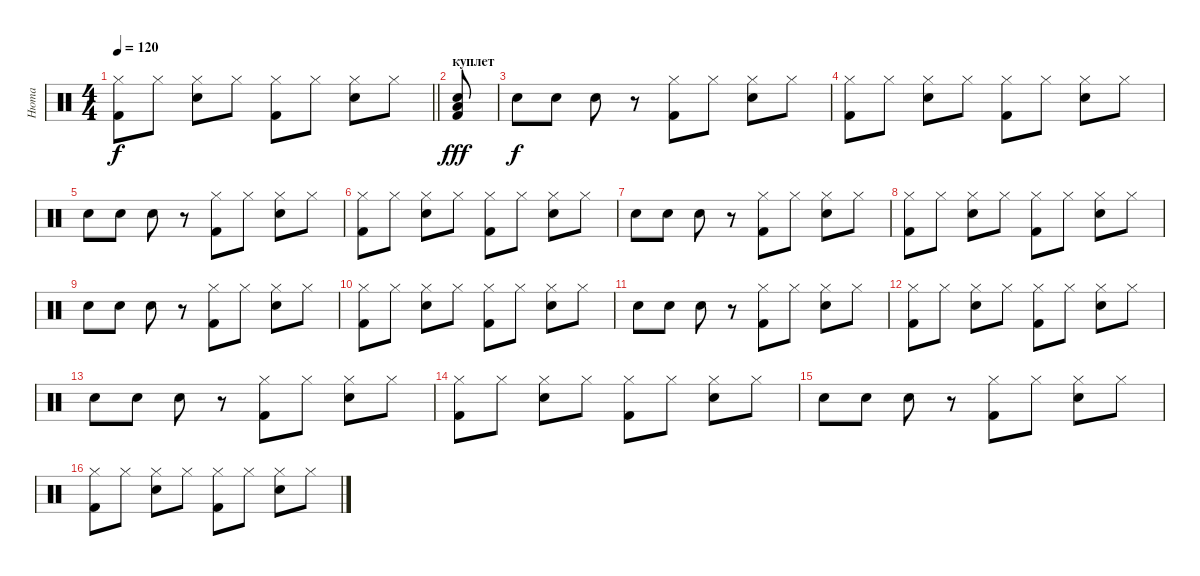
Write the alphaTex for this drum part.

\track ("Нюта" "Нюта") {instrument percussion}
\staff {score}
\articulation defaults
\ts (4 4)
\tempo 120
\clef neutral
\barLineRight lightlight
\ks c
("Hi-Hat (closed)" "Kick (hit) 2").8{dy f} "Hi-Hat (closed)".8 ("Hi-Hat (closed)" "Electric Snare (hit)").8 "Hi-Hat (closed)".8 ("Hi-Hat (closed)" "Kick (hit) 2").8 "Hi-Hat (closed)".8 ("Hi-Hat (closed)" "Electric Snare (hit)").8 "Hi-Hat (closed)".8 |
\section ("" "куплет")
("Kick (hit) 2" "Low Floor Tom (hit)" "Snare (hit) 2").8{dy fff} |
"Electric Snare (hit)".8{dy f} "Electric Snare (hit)".8 "Electric Snare (hit)".8 r.8 ("Hi-Hat (closed)" "Kick (hit) 2").8 "Hi-Hat (closed)".8 ("Hi-Hat (closed)" "Electric Snare (hit)").8 "Hi-Hat (closed)".8 |
("Hi-Hat (closed)" "Kick (hit) 2").8 "Hi-Hat (closed)".8 ("Hi-Hat (closed)" "Electric Snare (hit)").8 "Hi-Hat (closed)".8 ("Hi-Hat (closed)" "Kick (hit) 2").8 "Hi-Hat (closed)".8 ("Hi-Hat (closed)" "Electric Snare (hit)").8 "Hi-Hat (closed)".8 |
"Electric Snare (hit)".8 "Electric Snare (hit)".8 "Electric Snare (hit)".8 r.8 ("Hi-Hat (closed)" "Kick (hit) 2").8 "Hi-Hat (closed)".8 ("Hi-Hat (closed)" "Electric Snare (hit)").8 "Hi-Hat (closed)".8 |
("Hi-Hat (closed)" "Kick (hit) 2").8 "Hi-Hat (closed)".8 ("Hi-Hat (closed)" "Electric Snare (hit)").8 "Hi-Hat (closed)".8 ("Hi-Hat (closed)" "Kick (hit) 2").8 "Hi-Hat (closed)".8 ("Hi-Hat (closed)" "Electric Snare (hit)").8 "Hi-Hat (closed)".8 |
"Electric Snare (hit)".8 "Electric Snare (hit)".8 "Electric Snare (hit)".8 r.8 ("Hi-Hat (closed)" "Kick (hit) 2").8 "Hi-Hat (closed)".8 ("Hi-Hat (closed)" "Electric Snare (hit)").8 "Hi-Hat (closed)".8 |
("Hi-Hat (closed)" "Kick (hit) 2").8 "Hi-Hat (closed)".8 ("Hi-Hat (closed)" "Electric Snare (hit)").8 "Hi-Hat (closed)".8 ("Hi-Hat (closed)" "Kick (hit) 2").8 "Hi-Hat (closed)".8 ("Hi-Hat (closed)" "Electric Snare (hit)").8 "Hi-Hat (closed)".8 |
"Electric Snare (hit)".8 "Electric Snare (hit)".8 "Electric Snare (hit)".8 r.8 ("Hi-Hat (closed)" "Kick (hit) 2").8 "Hi-Hat (closed)".8 ("Hi-Hat (closed)" "Electric Snare (hit)").8 "Hi-Hat (closed)".8 |
("Hi-Hat (closed)" "Kick (hit) 2").8 "Hi-Hat (closed)".8 ("Hi-Hat (closed)" "Electric Snare (hit)").8 "Hi-Hat (closed)".8 ("Hi-Hat (closed)" "Kick (hit) 2").8 "Hi-Hat (closed)".8 ("Hi-Hat (closed)" "Electric Snare (hit)").8 "Hi-Hat (closed)".8 |
"Electric Snare (hit)".8 "Electric Snare (hit)".8 "Electric Snare (hit)".8 r.8 ("Hi-Hat (closed)" "Kick (hit) 2").8 "Hi-Hat (closed)".8 ("Hi-Hat (closed)" "Electric Snare (hit)").8 "Hi-Hat (closed)".8 |
("Hi-Hat (closed)" "Kick (hit) 2").8 "Hi-Hat (closed)".8 ("Hi-Hat (closed)" "Electric Snare (hit)").8 "Hi-Hat (closed)".8 ("Hi-Hat (closed)" "Kick (hit) 2").8 "Hi-Hat (closed)".8 ("Hi-Hat (closed)" "Electric Snare (hit)").8 "Hi-Hat (closed)".8 |
"Electric Snare (hit)".8 "Electric Snare (hit)".8 "Electric Snare (hit)".8 r.8 ("Hi-Hat (closed)" "Kick (hit) 2").8 "Hi-Hat (closed)".8 ("Hi-Hat (closed)" "Electric Snare (hit)").8 "Hi-Hat (closed)".8 |
("Hi-Hat (closed)" "Kick (hit) 2").8 "Hi-Hat (closed)".8 ("Hi-Hat (closed)" "Electric Snare (hit)").8 "Hi-Hat (closed)".8 ("Hi-Hat (closed)" "Kick (hit) 2").8 "Hi-Hat (closed)".8 ("Hi-Hat (closed)" "Electric Snare (hit)").8 "Hi-Hat (closed)".8 |
"Electric Snare (hit)".8 "Electric Snare (hit)".8 "Electric Snare (hit)".8 r.8 ("Hi-Hat (closed)" "Kick (hit) 2").8 "Hi-Hat (closed)".8 ("Hi-Hat (closed)" "Electric Snare (hit)").8 "Hi-Hat (closed)".8 |
("Hi-Hat (closed)" "Kick (hit) 2").8 "Hi-Hat (closed)".8 ("Hi-Hat (closed)" "Electric Snare (hit)").8 "Hi-Hat (closed)".8 ("Hi-Hat (closed)" "Kick (hit) 2").8 "Hi-Hat (closed)".8 ("Hi-Hat (closed)" "Electric Snare (hit)").8 "Hi-Hat (closed)".8
